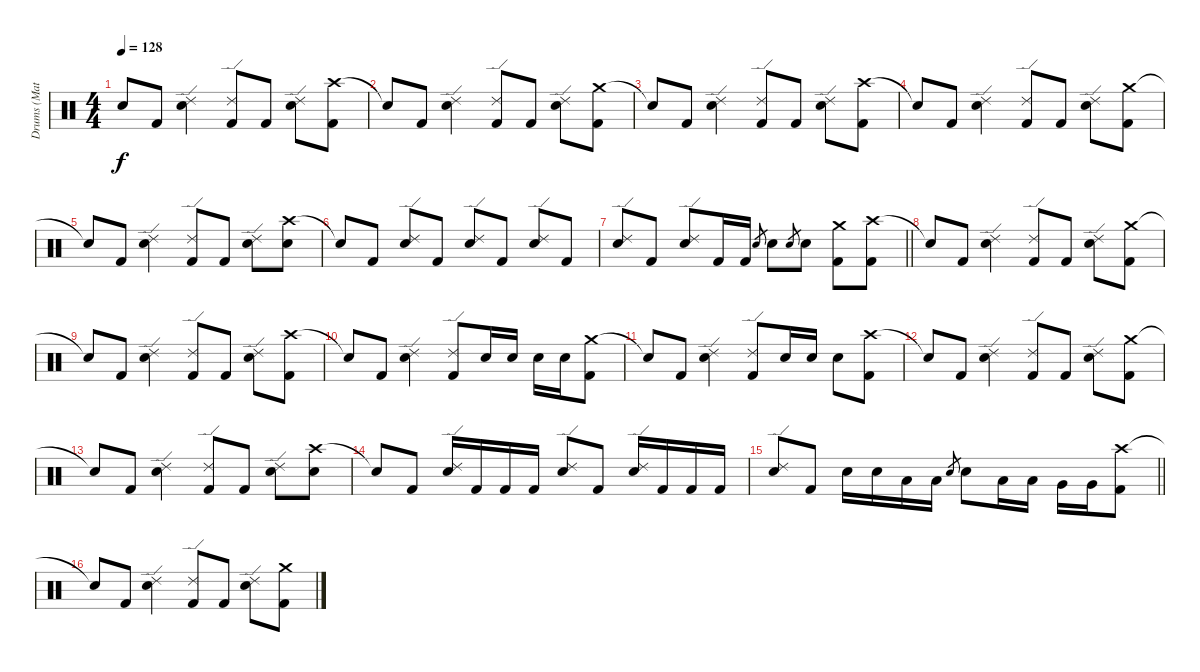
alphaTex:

\track ("Drums (Matt)" "Drums (Mat") {instrument percussion}
\staff {score}
\articulation defaults
\ts (4 4)
\tempo 128
\clef neutral
\ks c "Snare (hit)"{t}.8{dy f} "Kick (hit) 2".8
("Ride (edge) 2" "Snare (hit) 2").4 ("Ride (edge) 2" "Kick (hit) 2").8 "Kick (hit) 2".8 ("Ride (edge) 2" "Snare (hit) 2").8 ("Crash high (hit)" "Kick (hit) 2").8 |
"Snare (hit)"{t}.8 "Kick (hit) 2".8 ("Ride (edge) 2" "Snare (hit) 2").4 ("Ride (edge) 2" "Kick (hit) 2").8 "Kick (hit) 2".8 ("Ride (edge) 2" "Snare (hit) 2").8 ("Crash medium (hit)" "Kick (hit) 2").8 |
"Snare (hit)"{t}.8 "Kick (hit) 2".8 ("Ride (edge) 2" "Snare (hit) 2").4 ("Ride (edge) 2" "Kick (hit) 2").8 "Kick (hit) 2".8 ("Ride (edge) 2" "Snare (hit) 2").8 ("Crash high (hit)" "Kick (hit) 2").8 |
"Snare (hit)"{t}.8 "Kick (hit) 2".8 ("Ride (edge) 2" "Snare (hit) 2").4 ("Ride (edge) 2" "Kick (hit) 2").8 "Kick (hit) 2".8 ("Ride (edge) 2" "Snare (hit) 2").8 ("Crash medium (hit)" "Kick (hit) 2").8 |
"Snare (hit)"{t}.8 "Kick (hit) 2".8 ("Ride (edge) 2" "Snare (hit) 2").4 ("Ride (edge) 2" "Kick (hit) 2").8 "Kick (hit) 2".8 ("Ride (edge) 2" "Snare (hit) 2").8 ("Crash high (hit)" "Snare (hit) 2").8 |
"Snare (hit)"{t}.8 "Kick (hit) 2".8 ("Ride (edge) 2" "Snare (hit) 2").8 "Kick (hit) 2".8 ("Ride (edge) 2" "Snare (hit) 2").8 "Kick (hit) 2".8 ("Ride (edge) 2" "Snare (hit) 2").8 "Kick (hit) 2".8 |
\barLineRight lightlight
("Ride (edge) 2" "Snare (hit) 2").8 "Kick (hit) 2".8 ("Ride (edge) 2" "Snare (hit) 2").8 "Kick (hit) 2".16 "Kick (hit) 2".16 "Snare (hit) 2".8{gr} "Snare (hit) 2".8 "Snare (hit) 2".8{gr} "Snare (hit) 2".8 ("Crash medium (hit)" "Kick (hit) 2").8 ("Crash high (hit)" "Kick (hit) 2").8 |
"Snare (hit)"{t}.8 "Kick (hit) 2".8 ("Ride (edge) 2" "Snare (hit) 2").4 ("Ride (edge) 2" "Kick (hit) 2").8 "Kick (hit) 2".8 ("Ride (edge) 2" "Snare (hit) 2").8 ("Crash medium (hit)" "Kick (hit) 2").8 |
"Snare (hit)"{t}.8 "Kick (hit) 2".8 ("Ride (edge) 2" "Snare (hit) 2").4 ("Ride (edge) 2" "Kick (hit) 2").8 "Kick (hit) 2".8 ("Ride (edge) 2" "Snare (hit) 2").8 ("Crash high (hit)" "Kick (hit) 2").8 |
"Snare (hit)"{t}.8 "Kick (hit) 2".8 ("Ride (edge) 2" "Snare (hit) 2").4 ("Ride (edge) 2" "Kick (hit) 2").8 "Snare (hit) 2".16 "Snare (hit) 2".16 "Snare (hit) 2".16 "Snare (hit) 2".16 ("Crash medium (hit)" "Kick (hit) 2").8 |
"Snare (hit)"{t}.8 "Kick (hit) 2".8 ("Ride (edge) 2" "Snare (hit) 2").4 ("Ride (edge) 2" "Kick (hit) 2").8 "Snare (hit) 2".16 "Snare (hit) 2".16 "Snare (hit) 2".8 ("Crash high (hit)" "Kick (hit) 2").8 |
"Snare (hit)"{t}.8 "Kick (hit) 2".8 ("Ride (edge) 2" "Snare (hit) 2").4 ("Ride (edge) 2" "Kick (hit) 2").8 "Kick (hit) 2".8 ("Ride (edge) 2" "Snare (hit) 2").8 ("Crash medium (hit)" "Kick (hit) 2").8 |
"Snare (hit)"{t}.8 "Kick (hit) 2".8 ("Ride (edge) 2" "Snare (hit) 2").4 ("Ride (edge) 2" "Kick (hit) 2").8 "Kick (hit) 2".8 ("Ride (edge) 2" "Snare (hit) 2").8 ("Crash high (hit)" "Snare (hit) 2").8 |
"Snare (hit)"{t}.8 "Kick (hit) 2".8 ("Ride (edge) 2" "Snare (hit) 2").16 "Kick (hit) 2".16 "Kick (hit) 2".16 "Kick (hit) 2".16 ("Ride (edge) 2" "Snare (hit) 2").8 "Kick (hit) 2".8 ("Ride (edge) 2" "Snare (hit) 2").16 "Kick (hit) 2".16 "Kick (hit) 2".16 "Kick (hit) 2".16 |
\barLineRight lightlight
("Ride (edge) 2" "Snare (hit) 2").8 "Kick (hit) 2".8 "Snare (hit) 2".16 "Snare (hit) 2".16 "Low Tom (hit)".16 "Low Tom (hit)".16 "Snare (hit) 2".8{gr} "Snare (hit) 2".8 "Low Tom (hit)".16 "Low Tom (hit)".16 "Very Low Tom (hit)".16 "Very Low Tom (hit)".16 ("Crash high (hit)" "Kick (hit) 2").8 |
"Snare (hit)"{t}.8 "Kick (hit) 2".8 ("Ride (edge) 2" "Snare (hit) 2").4 ("Ride (edge) 2" "Kick (hit) 2").8 "Kick (hit) 2".8 ("Ride (edge) 2" "Snare (hit) 2").8 ("Crash medium (hit)" "Kick (hit) 2").8
